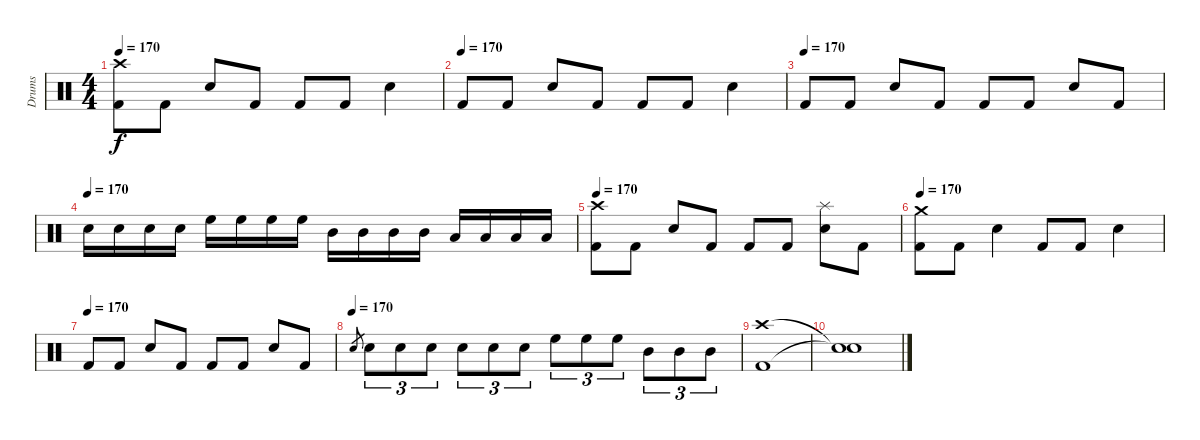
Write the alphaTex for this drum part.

\track ("Drums" "Drums") {instrument percussion}
\staff {score}
\articulation defaults
\ts (4 4)
\tempo 170
\clef neutral
\ks c
("Crash high (hit)" "Kick (hit) 2").8{dy f} "Kick (hit) 2".8 "Electric Snare (hit)".8 "Kick (hit) 2".8 "Kick (hit) 2".8 "Kick (hit) 2".8 "Electric Snare (hit)".4 |
\tempo (170)
"Kick (hit) 2".8 "Kick (hit) 2".8 "Electric Snare (hit)".8 "Kick (hit) 2".8 "Kick (hit) 2".8 "Kick (hit) 2".8 "Electric Snare (hit)".4 |
\tempo (170)
"Kick (hit) 2".8 "Kick (hit) 2".8 "Electric Snare (hit)".8 "Kick (hit) 2".8 "Kick (hit) 2".8 "Kick (hit) 2".8 "Electric Snare (hit)".8 "Kick (hit) 2".8 |
\tempo (170)
"Electric Snare (hit)".16 "Electric Snare (hit)".16 "Electric Snare (hit)".16 "Electric Snare (hit)".16 "High Floor Tom (hit)".16 "High Floor Tom (hit)".16 "High Floor Tom (hit)".16 "High Floor Tom (hit)".16 "Mid Tom (hit)".16 "Mid Tom (hit)".16 "Mid Tom (hit)".16 "Mid Tom (hit)".16 "Low Tom (hit)".16 "Low Tom (hit)".16 "Low Tom (hit)".16 "Low Tom (hit)".16 |
\tempo 170
("Crash high (hit)" "Kick (hit) 2").8 "Kick (hit) 2".8 "Electric Snare (hit)".8 "Kick (hit) 2".8 "Kick (hit) 2".8 "Kick (hit) 2".8 ("Splash (hit)" "Electric Snare (hit)").8 "Kick (hit) 2".8 |
\tempo 170
("Crash medium (hit)" "Kick (hit) 2").8 "Kick (hit) 2".8 "Electric Snare (hit)".4 "Kick (hit) 2".8 "Kick (hit) 2".8 "Electric Snare (hit)".4 |
\tempo (170)
"Kick (hit) 2".8 "Kick (hit) 2".8 "Electric Snare (hit)".8 "Kick (hit) 2".8 "Kick (hit) 2".8 "Kick (hit) 2".8 "Electric Snare (hit)".8 "Kick (hit) 2".8 |
\tempo (170)
"Electric Snare (hit)".8{gr} "Electric Snare (hit)".8{tu (3 2)} "Electric Snare (hit)".8{tu (3 2)} "Electric Snare (hit)".8{tu (3 2)} "Electric Snare (hit)".8{tu (3 2)} "Electric Snare (hit)".8{tu (3 2)} "Electric Snare (hit)".8{tu (3 2)} "High Floor Tom (hit)".8{tu (3 2)} "High Floor Tom (hit)".8{tu (3 2)} "High Floor Tom (hit)".8{tu (3 2)} "Mid Tom (hit)".8{tu (3 2)} "Mid Tom (hit)".8{tu (3 2)} "Mid Tom (hit)".8{tu (3 2)} |
("Crash high (hit)" "Kick (hit) 2").1 |
("Snare (hit)"{t} "Snare (hit)"{t}).1
